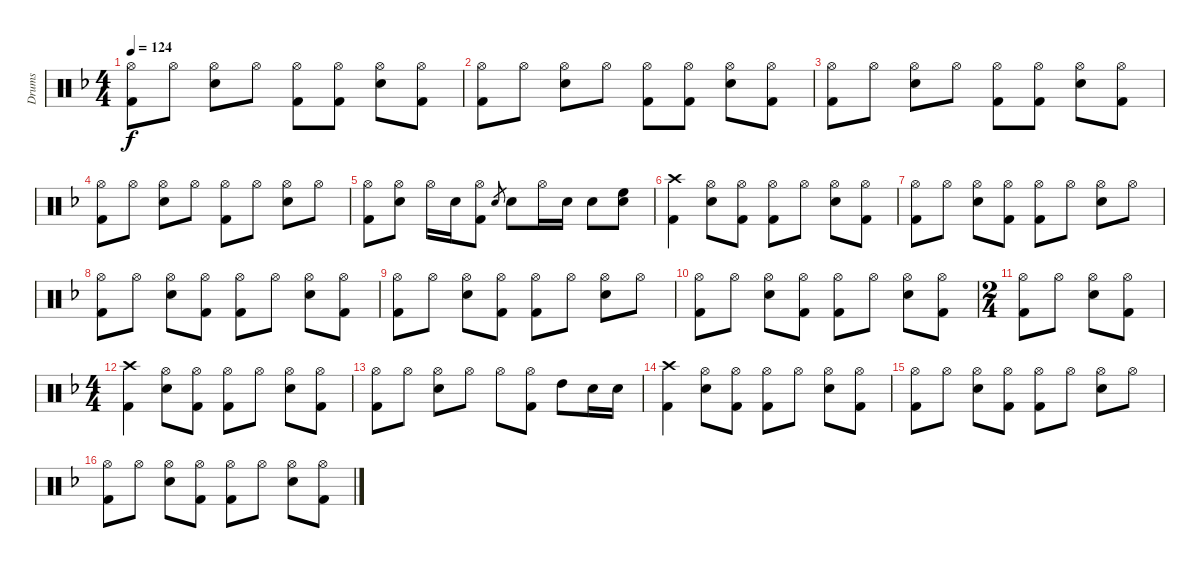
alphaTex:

\track ("Drums" "Drums") {instrument percussion}
\staff {score}
\articulation defaults
\ts (4 4)
\tempo 124
\clef neutral
\ks dminor
("Kick (hit) 2" "Hi-Hat (open)").8{dy f} "Hi-Hat (open)".8 ("Snare (hit) 2" "Hi-Hat (open)").8 "Hi-Hat (open)".8 ("Kick (hit) 2" "Hi-Hat (open)").8 ("Kick (hit) 2" "Hi-Hat (open)").8 ("Snare (hit) 2" "Hi-Hat (open)").8 ("Kick (hit) 2" "Hi-Hat (open)").8 |
("Kick (hit) 2" "Hi-Hat (open)").8 "Hi-Hat (open)".8 ("Snare (hit) 2" "Hi-Hat (open)").8 "Hi-Hat (open)".8 ("Kick (hit) 2" "Hi-Hat (open)").8 ("Kick (hit) 2" "Hi-Hat (open)").8 ("Snare (hit) 2" "Hi-Hat (open)").8 ("Kick (hit) 2" "Hi-Hat (open)").8 |
("Kick (hit) 2" "Hi-Hat (open)").8 "Hi-Hat (open)".8 ("Snare (hit) 2" "Hi-Hat (open)").8 "Hi-Hat (open)".8 ("Kick (hit) 2" "Hi-Hat (open)").8 ("Kick (hit) 2" "Hi-Hat (open)").8 ("Snare (hit) 2" "Hi-Hat (open)").8 ("Kick (hit) 2" "Hi-Hat (open)").8 |
("Kick (hit) 2" "Hi-Hat (open)").8 "Hi-Hat (open)".8 ("Snare (hit) 2" "Hi-Hat (open)").8 "Hi-Hat (open)".8 ("Kick (hit) 2" "Hi-Hat (open)").8 "Hi-Hat (open)".8 ("Snare (hit) 2" "Hi-Hat (open)").8 "Hi-Hat (open)".8 |
("Kick (hit) 2" "Hi-Hat (open)").8 ("Snare (hit) 2" "Hi-Hat (open)").8 "Hi-Hat (open)".16 "Snare (hit) 2".16 ("Kick (hit) 2" "Hi-Hat (open)").8 "Snare (hit) 2".8{gr} "Snare (hit) 2".8 "Hi-Hat (open)".16 "Snare (hit) 2".16 "Snare (hit) 2".8 ("Snare (hit) 2" "High Floor Tom (hit)").8 |
("Kick (hit) 2" "Crash high (hit)").4 ("Snare (hit) 2" "Hi-Hat (open)").8 ("Kick (hit) 2" "Hi-Hat (open)").8 ("Kick (hit) 2" "Hi-Hat (open)").8 "Hi-Hat (open)".8 ("Snare (hit) 2" "Hi-Hat (open)").8 ("Kick (hit) 2" "Hi-Hat (open)").8 |
("Kick (hit) 2" "Hi-Hat (open)").8 "Hi-Hat (open)".8 ("Snare (hit) 2" "Hi-Hat (open)").8 ("Kick (hit) 2" "Hi-Hat (open)").8 ("Kick (hit) 2" "Hi-Hat (open)").8 "Hi-Hat (open)".8 ("Snare (hit) 2" "Hi-Hat (open)").8 "Hi-Hat (open)".8 |
("Kick (hit) 2" "Hi-Hat (open)").8 "Hi-Hat (open)".8 ("Snare (hit) 2" "Hi-Hat (open)").8 ("Kick (hit) 2" "Hi-Hat (open)").8 ("Kick (hit) 2" "Hi-Hat (open)").8 "Hi-Hat (open)".8 ("Snare (hit) 2" "Hi-Hat (open)").8 ("Kick (hit) 2" "Hi-Hat (open)").8 |
("Kick (hit) 2" "Hi-Hat (open)").8 "Hi-Hat (open)".8 ("Snare (hit) 2" "Hi-Hat (open)").8 ("Kick (hit) 2" "Hi-Hat (open)").8 ("Kick (hit) 2" "Hi-Hat (open)").8 "Hi-Hat (open)".8 ("Snare (hit) 2" "Hi-Hat (open)").8 "Hi-Hat (open)".8 |
("Kick (hit) 2" "Hi-Hat (open)").8 "Hi-Hat (open)".8 ("Snare (hit) 2" "Hi-Hat (open)").8 ("Kick (hit) 2" "Hi-Hat (open)").8 ("Kick (hit) 2" "Hi-Hat (open)").8 "Hi-Hat (open)".8 ("Snare (hit) 2" "Hi-Hat (open)").8 ("Kick (hit) 2" "Hi-Hat (open)").8 |
\ts (2 4)
("Kick (hit) 2" "Hi-Hat (open)").8 "Hi-Hat (open)".8 ("Snare (hit) 2" "Hi-Hat (open)").8 ("Kick (hit) 2" "Hi-Hat (open)").8 |
\ts (4 4)
("Kick (hit) 2" "Crash high (hit)").4 ("Snare (hit) 2" "Hi-Hat (open)").8 ("Kick (hit) 2" "Hi-Hat (open)").8 ("Kick (hit) 2" "Hi-Hat (open)").8 "Hi-Hat (open)".8 ("Snare (hit) 2" "Hi-Hat (open)").8 ("Kick (hit) 2" "Hi-Hat (open)").8 |
("Kick (hit) 2" "Hi-Hat (open)").8 "Hi-Hat (open)".8 ("Snare (hit) 2" "Hi-Hat (open)").8 "Hi-Hat (open)".8 "Hi-Hat (open)".8 ("Kick (hit) 2" "Hi-Hat (open)").8 "High Tom (hit)".8 "Snare (hit) 2".16 "Snare (hit) 2".16 |
("Kick (hit) 2" "Crash high (hit)").4 ("Snare (hit) 2" "Hi-Hat (open)").8 ("Kick (hit) 2" "Hi-Hat (open)").8 ("Kick (hit) 2" "Hi-Hat (open)").8 "Hi-Hat (open)".8 ("Snare (hit) 2" "Hi-Hat (open)").8 ("Kick (hit) 2" "Hi-Hat (open)").8 |
("Kick (hit) 2" "Hi-Hat (open)").8 "Hi-Hat (open)".8 ("Snare (hit) 2" "Hi-Hat (open)").8 ("Kick (hit) 2" "Hi-Hat (open)").8 ("Kick (hit) 2" "Hi-Hat (open)").8 "Hi-Hat (open)".8 ("Snare (hit) 2" "Hi-Hat (open)").8 "Hi-Hat (open)".8 |
("Kick (hit) 2" "Hi-Hat (open)").8 "Hi-Hat (open)".8 ("Snare (hit) 2" "Hi-Hat (open)").8 ("Kick (hit) 2" "Hi-Hat (open)").8 ("Kick (hit) 2" "Hi-Hat (open)").8 "Hi-Hat (open)".8 ("Snare (hit) 2" "Hi-Hat (open)").8 ("Kick (hit) 2" "Hi-Hat (open)").8
